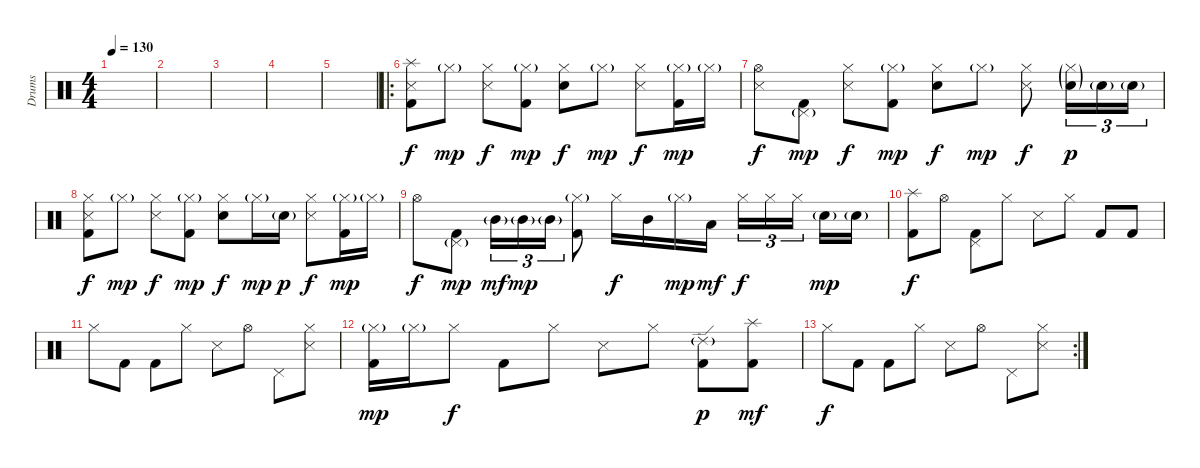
\track ("Drums" "Drums") {instrument percussion}
\staff {score}
\articulation defaults
\ts (4 4)
\tempo 130
\clef neutral
\ks c
|
|
|
|
|
\ro
("Splash (hit)" "Snare (side stick) 3" "Kick (hit) 2").8 "Hi-Hat (closed)"{g}.8{dy mp} ("Hi-Hat (closed)" "Snare (side stick) 3").8{dy f} ("Hi-Hat (closed)"{g} "Kick (hit) 2").8{dy mp} ("Hi-Hat (closed)" "Electric Snare (hit)").8{dy f} "Hi-Hat (closed)"{g}.8{dy mp} ("Hi-Hat (closed)" "Snare (side stick) 3").8{dy f} ("Hi-Hat (closed)"{g} "Kick (hit) 2").16{dy mp} "Hi-Hat (closed)"{g}.16 |
("Hi-Hat (open)" "Snare (side stick) 3").8{dy f} ("Pedal Hi-Hat (hit)"{g} "Kick (hit) 2").8{dy mp} ("Hi-Hat (closed)" "Snare (side stick) 3").8{dy f} ("Hi-Hat (closed)"{g} "Kick (hit) 2").8{dy mp} ("Hi-Hat (closed)" "Electric Snare (hit)").8{dy f} "Hi-Hat (closed)"{g}.8{dy mp} ("Hi-Hat (closed)" "Snare (side stick) 3").8{dy f} ("Hi-Hat (closed)"{g} "Electric Snare (hit)"{g}).16{tu (3 2) dy p} "Electric Snare (hit)"{g}.16{tu (3 2)} "Electric Snare (hit)"{g}.16{tu (3 2)} |
("Hi-Hat (closed)" "Snare (side stick) 3" "Kick (hit) 2").8{dy f} "Hi-Hat (closed)"{g}.8{dy mp} ("Hi-Hat (closed)" "Snare (side stick) 3").8{dy f} ("Hi-Hat (closed)"{g} "Kick (hit) 2").8{dy mp} ("Hi-Hat (closed)" "Electric Snare (hit)").8{dy f} "Hi-Hat (closed)"{g}.16{dy mp} "Electric Snare (hit)"{g}.16{dy p} ("Hi-Hat (closed)" "Snare (side stick) 3").8{dy f} ("Hi-Hat (closed)"{g} "Kick (hit) 2").16{dy mp} "Hi-Hat (closed)"{g}.16 |
"Hi-Hat (open)".8{dy f} ("Pedal Hi-Hat (hit)"{g} "Kick (hit) 2").8{dy mp} "Mid Tom (hit)"{g}.16{tu (3 2) dy mf} "Mid Tom (hit)"{g}.16{tu (3 2) dy mp} "Mid Tom (hit)"{g}.16{tu (3 2)} ("Hi-Hat (closed)"{g} "Kick (hit) 2").8 "Hi-Hat (closed)".16{dy f} "Mid Tom (hit)".16 "Hi-Hat (closed)"{g}.16{dy mp} "Low Tom (hit)".16{dy mf} "Hi-Hat (closed)".16{tu (3 2) dy f} "Hi-Hat (closed)".16{tu (3 2)} "Hi-Hat (closed)".16{tu (3 2) beam splitsecondary} "Electric Snare (hit)"{g}.16{dy mp} "Electric Snare (hit)"{g}.16 |
("Splash (hit)" "Kick (hit) 2").8{dy f} "Hi-Hat (open)".8 ("Pedal Hi-Hat (hit)" "Kick (hit) 2").8 "Hi-Hat (closed)".8 "Snare (side stick) 3".8 "Hi-Hat (closed)".8 "Kick (hit) 2".8 "Kick (hit) 2".8 |
"Hi-Hat (closed)".8 "Kick (hit) 2".8 "Kick (hit) 2".8 "Hi-Hat (closed)".8 "Snare (side stick) 3".8 "Hi-Hat (open)".8 "Pedal Hi-Hat (hit)".8 ("Hi-Hat (closed)" "Snare (side stick) 3").8 |
("Hi-Hat (closed)"{g} "Kick (hit) 2").16{dy mp} "Hi-Hat (closed)"{g}.16 "Hi-Hat (closed)".8{dy f} "Kick (hit) 2".8 "Hi-Hat (closed)".8 "Snare (side stick) 3".8 "Hi-Hat (closed)".8 ("Ride (edge) 2"{g} "Kick (hit) 2").8{dy p} ("Splash (hit)" "Kick (hit) 2").8{dy mf} |
\rc 2 "Hi-Hat (closed)".8{dy f} "Kick (hit) 2".8 "Kick (hit) 2".8 "Hi-Hat (closed)".8 "Snare (side stick) 3".8 "Hi-Hat (open)".8 "Pedal Hi-Hat (hit)".8
("Hi-Hat (closed)" "Snare (side stick) 3").8
